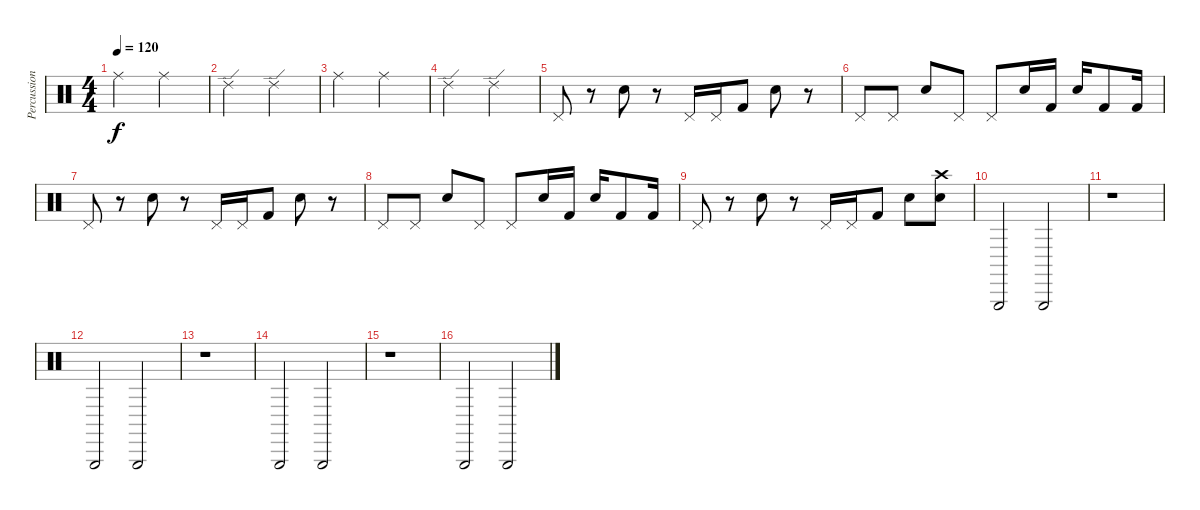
\track ("Percussion" "Percussion") {instrument percussion}
\staff {score}
\articulation defaults
\ts (4 4)
\tempo 120
\clef neutral
\ks c "Ride (middle)".2{dy f} "Ride (middle)".2
|
"Ride (edge) 2".2 "Ride (edge) 2".2 |
"Ride (middle)".2 "Ride (middle)".2 |
"Ride (edge) 2".2 "Ride (edge) 2".2 |
"Pedal Hi-Hat (hit)".8 r.8 "Electric Snare (hit)".8 r.8 "Pedal Hi-Hat (hit)".16 "Pedal Hi-Hat (hit)".16 "Kick (hit) 2".8 "Electric Snare (hit)".8 r.8 |
"Pedal Hi-Hat (hit)".8 "Pedal Hi-Hat (hit)".8 "Electric Snare (hit)".8 "Pedal Hi-Hat (hit)".8 "Pedal Hi-Hat (hit)".8 "Electric Snare (hit)".16 "Kick (hit) 2".16 "Electric Snare (hit)".16 "Kick (hit) 2".8 "Kick (hit) 2".16 |
"Pedal Hi-Hat (hit)".8 r.8 "Electric Snare (hit)".8 r.8 "Pedal Hi-Hat (hit)".16 "Pedal Hi-Hat (hit)".16 "Kick (hit) 2".8 "Electric Snare (hit)".8 r.8 |
"Pedal Hi-Hat (hit)".8 "Pedal Hi-Hat (hit)".8 "Electric Snare (hit)".8 "Pedal Hi-Hat (hit)".8 "Pedal Hi-Hat (hit)".8 "Electric Snare (hit)".16 "Kick (hit) 2".16 "Electric Snare (hit)".16 "Kick (hit) 2".8 "Kick (hit) 2".16 |
"Pedal Hi-Hat (hit)".8 r.8 "Electric Snare (hit)".8 r.8 "Pedal Hi-Hat (hit)".16 "Pedal Hi-Hat (hit)".16 "Kick (hit) 2".8 "Electric Snare (hit)".8 ("Electric Snare (hit)" "Crash high (hit)").8 |
"Triangle (hit)".2 "Triangle (hit)".2 |
r.1 |
"Triangle (hit)".2 "Triangle (hit)".2 |
r.1 |
"Triangle (hit)".2 "Triangle (hit)".2 |
r.1 |
"Triangle (hit)".2 "Triangle (hit)".2
